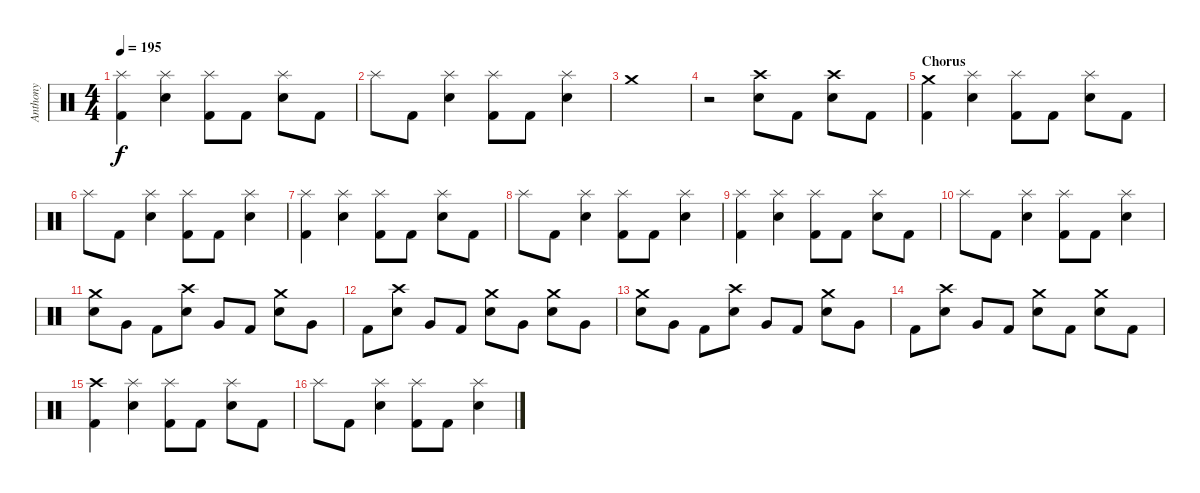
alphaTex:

\track ("Anthony" "Anthony") {instrument percussion}
\staff {score}
\articulation defaults
\ts (4 4)
\tempo 195
\clef neutral
\ks c
("Splash (hit)" "Kick (hit) 2").4{dy f} ("Splash (hit)" "Electric Snare (hit)").4 ("Splash (hit)" "Kick (hit) 2").8 "Kick (hit) 2".8 ("Splash (hit)" "Electric Snare (hit)").8 "Kick (hit) 2".8 |
"Splash (hit)".8 "Kick (hit) 2".8 ("Splash (hit)" "Electric Snare (hit)").4 ("Splash (hit)" "Kick (hit) 2").8 "Kick (hit) 2".8 ("Splash (hit)" "Electric Snare (hit)").4 |
"Crash medium (hit)".1 |
r.2 ("Crash high (hit)" "Electric Snare (hit)").8 "Kick (hit) 2".8 ("Crash high (hit)" "Electric Snare (hit)").8 "Kick (hit) 2".8 |
\section ("" "Chorus")
("Crash medium (hit)" "Kick (hit) 2").4 ("Splash (hit)" "Electric Snare (hit)").4 ("Splash (hit)" "Kick (hit) 2").8 "Kick (hit) 2".8 ("Splash (hit)" "Electric Snare (hit)").8 "Kick (hit) 2".8 |
"Splash (hit)".8 "Kick (hit) 2".8 ("Splash (hit)" "Electric Snare (hit)").4 ("Splash (hit)" "Kick (hit) 2").8 "Kick (hit) 2".8 ("Splash (hit)" "Electric Snare (hit)").4 |
("Splash (hit)" "Kick (hit) 2").4 ("Splash (hit)" "Electric Snare (hit)").4 ("Splash (hit)" "Kick (hit) 2").8 "Kick (hit) 2".8 ("Splash (hit)" "Electric Snare (hit)").8 "Kick (hit) 2".8 |
"Splash (hit)".8 "Kick (hit) 2".8 ("Splash (hit)" "Electric Snare (hit)").4 ("Splash (hit)" "Kick (hit) 2").8 "Kick (hit) 2".8 ("Splash (hit)" "Electric Snare (hit)").4 |
("Splash (hit)" "Kick (hit) 2").4 ("Splash (hit)" "Electric Snare (hit)").4 ("Splash (hit)" "Kick (hit) 2").8 "Kick (hit) 2".8 ("Splash (hit)" "Electric Snare (hit)").8 "Kick (hit) 2".8 |
"Splash (hit)".8 "Kick (hit) 2".8 ("Splash (hit)" "Electric Snare (hit)").4 ("Splash (hit)" "Kick (hit) 2").8 "Kick (hit) 2".8 ("Splash (hit)" "Electric Snare (hit)").4 |
("Crash medium (hit)" "Electric Snare (hit)").8 "Very Low Tom (hit)".8 "Kick (hit) 2".8 ("Crash high (hit)" "Electric Snare (hit)").8 "Very Low Tom (hit)".8 "Kick (hit) 2".8 ("Crash medium (hit)" "Electric Snare (hit)").8 "Very Low Tom (hit)".8 |
"Kick (hit) 2".8 ("Crash high (hit)" "Electric Snare (hit)").8 "Very Low Tom (hit)".8 "Kick (hit) 2".8 ("Crash medium (hit)" "Electric Snare (hit)").8 "Very Low Tom (hit)".8 ("Crash medium (hit)" "Electric Snare (hit)").8 "Very Low Tom (hit)".8 |
("Crash medium (hit)" "Electric Snare (hit)").8 "Very Low Tom (hit)".8 "Kick (hit) 2".8 ("Crash high (hit)" "Electric Snare (hit)").8 "Very Low Tom (hit)".8 "Kick (hit) 2".8 ("Crash medium (hit)" "Electric Snare (hit)").8 "Very Low Tom (hit)".8 |
"Kick (hit) 2".8 ("Crash high (hit)" "Electric Snare (hit)").8 "Very Low Tom (hit)".8 "Kick (hit) 2".8 ("Crash medium (hit)" "Electric Snare (hit)").8 "Kick (hit) 2".8 ("Crash medium (hit)" "Electric Snare (hit)").8 "Kick (hit) 2".8 |
("Crash high (hit)" "Kick (hit) 2").4 ("Splash (hit)" "Electric Snare (hit)").4 ("Splash (hit)" "Kick (hit) 2").8 "Kick (hit) 2".8 ("Splash (hit)" "Electric Snare (hit)").8 "Kick (hit) 2".8 |
"Splash (hit)".8 "Kick (hit) 2".8 ("Splash (hit)" "Electric Snare (hit)").4 ("Splash (hit)" "Kick (hit) 2").8 "Kick (hit) 2".8 ("Splash (hit)" "Electric Snare (hit)").4
